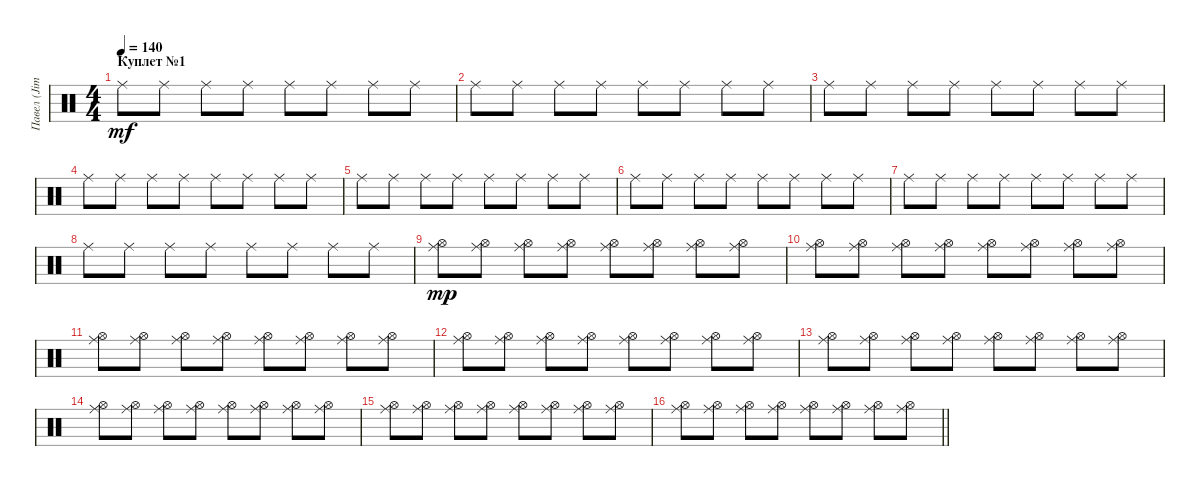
\track ("Павел (Jimmy) Лохнин" "Павел (Jim") {instrument percussion}
\staff {score}
\articulation defaults
\ts (4 4)
\section ("" "Куплет №1")
\tempo 140
\clef neutral
\ks c "Ride (middle)".8{dy mf} "Ride (middle)".8 "Ride (middle)".8 "Ride (middle)".8 "Ride (middle)".8 "Ride (middle)".8 "Ride (middle)".8 "Ride (middle)".8
|
"Ride (middle)".8 "Ride (middle)".8 "Ride (middle)".8 "Ride (middle)".8 "Ride (middle)".8 "Ride (middle)".8 "Ride (middle)".8 "Ride (middle)".8 |
"Ride (middle)".8 "Ride (middle)".8 "Ride (middle)".8 "Ride (middle)".8 "Ride (middle)".8 "Ride (middle)".8 "Ride (middle)".8 "Ride (middle)".8 |
"Ride (middle)".8 "Ride (middle)".8 "Ride (middle)".8 "Ride (middle)".8 "Ride (middle)".8 "Ride (middle)".8 "Ride (middle)".8 "Ride (middle)".8 |
"Ride (middle)".8 "Ride (middle)".8 "Ride (middle)".8 "Ride (middle)".8 "Ride (middle)".8 "Ride (middle)".8 "Ride (middle)".8 "Ride (middle)".8 |
"Ride (middle)".8 "Ride (middle)".8 "Ride (middle)".8 "Ride (middle)".8 "Ride (middle)".8 "Ride (middle)".8 "Ride (middle)".8 "Ride (middle)".8 |
"Ride (middle)".8 "Ride (middle)".8 "Ride (middle)".8 "Ride (middle)".8 "Ride (middle)".8 "Ride (middle)".8 "Ride (middle)".8 "Ride (middle)".8 |
"Ride (middle)".8 "Ride (middle)".8 "Ride (middle)".8 "Ride (middle)".8 "Ride (middle)".8 "Ride (middle)".8 "Ride (middle)".8 "Ride (middle)".8 |
("Ride (middle)" "Hi-Hat (open)").8{dy mp} ("Ride (middle)" "Hi-Hat (open)").8 ("Ride (middle)" "Hi-Hat (open)").8 ("Ride (middle)" "Hi-Hat (open)").8 ("Ride (middle)" "Hi-Hat (open)").8 ("Ride (middle)" "Hi-Hat (open)").8 ("Ride (middle)" "Hi-Hat (open)").8 ("Ride (middle)" "Hi-Hat (open)").8 |
("Ride (middle)" "Hi-Hat (open)").8 ("Ride (middle)" "Hi-Hat (open)").8 ("Ride (middle)" "Hi-Hat (open)").8 ("Ride (middle)" "Hi-Hat (open)").8 ("Ride (middle)" "Hi-Hat (open)").8 ("Ride (middle)" "Hi-Hat (open)").8 ("Ride (middle)" "Hi-Hat (open)").8 ("Ride (middle)" "Hi-Hat (open)").8 |
("Ride (middle)" "Hi-Hat (open)").8 ("Ride (middle)" "Hi-Hat (open)").8 ("Ride (middle)" "Hi-Hat (open)").8 ("Ride (middle)" "Hi-Hat (open)").8 ("Ride (middle)" "Hi-Hat (open)").8 ("Ride (middle)" "Hi-Hat (open)").8 ("Ride (middle)" "Hi-Hat (open)").8 ("Ride (middle)" "Hi-Hat (open)").8 |
("Ride (middle)" "Hi-Hat (open)").8 ("Ride (middle)" "Hi-Hat (open)").8 ("Ride (middle)" "Hi-Hat (open)").8 ("Ride (middle)" "Hi-Hat (open)").8 ("Ride (middle)" "Hi-Hat (open)").8 ("Ride (middle)" "Hi-Hat (open)").8 ("Ride (middle)" "Hi-Hat (open)").8 ("Ride (middle)" "Hi-Hat (open)").8 |
("Ride (middle)" "Hi-Hat (open)").8 ("Ride (middle)" "Hi-Hat (open)").8 ("Ride (middle)" "Hi-Hat (open)").8 ("Ride (middle)" "Hi-Hat (open)").8 ("Ride (middle)" "Hi-Hat (open)").8 ("Ride (middle)" "Hi-Hat (open)").8 ("Ride (middle)" "Hi-Hat (open)").8 ("Ride (middle)" "Hi-Hat (open)").8 |
("Ride (middle)" "Hi-Hat (open)").8 ("Ride (middle)" "Hi-Hat (open)").8 ("Ride (middle)" "Hi-Hat (open)").8 ("Ride (middle)" "Hi-Hat (open)").8 ("Ride (middle)" "Hi-Hat (open)").8 ("Ride (middle)" "Hi-Hat (open)").8 ("Ride (middle)" "Hi-Hat (open)").8 ("Ride (middle)" "Hi-Hat (open)").8 |
("Ride (middle)" "Hi-Hat (open)").8 ("Ride (middle)" "Hi-Hat (open)").8 ("Ride (middle)" "Hi-Hat (open)").8 ("Ride (middle)" "Hi-Hat (open)").8 ("Ride (middle)" "Hi-Hat (open)").8 ("Ride (middle)" "Hi-Hat (open)").8 ("Ride (middle)" "Hi-Hat (open)").8 ("Ride (middle)" "Hi-Hat (open)").8 |
\barLineRight lightlight
("Ride (middle)" "Hi-Hat (open)").8 ("Ride (middle)" "Hi-Hat (open)").8 ("Ride (middle)" "Hi-Hat (open)").8 ("Ride (middle)" "Hi-Hat (open)").8 ("Ride (middle)" "Hi-Hat (open)").8 ("Ride (middle)" "Hi-Hat (open)").8 ("Ride (middle)" "Hi-Hat (open)").8 ("Ride (middle)" "Hi-Hat (open)").8
